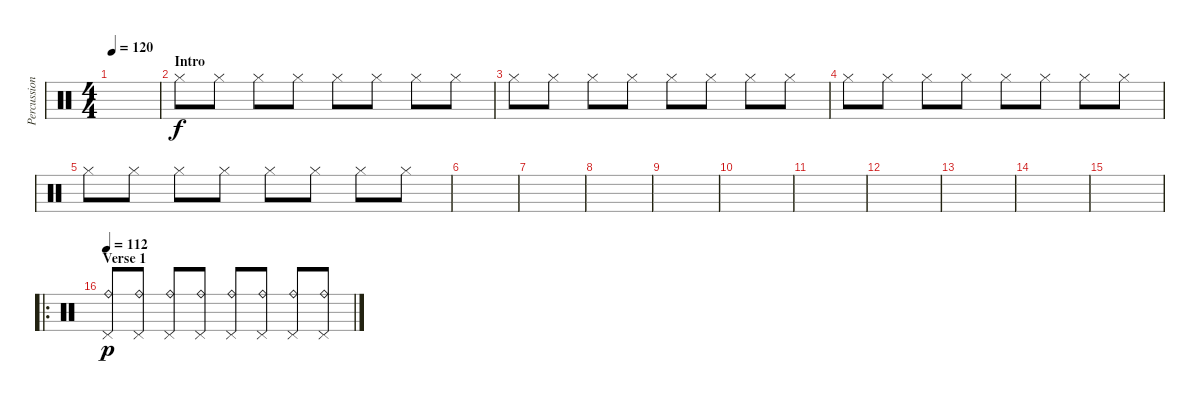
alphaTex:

\track ("Percussion 2" "Percussion") {instrument percussion}
\staff {score}
\articulation defaults
\ts (4 4)
\tempo 120
\clef neutral
\ks c
|
\section ("" "Intro")
"Hi-Hat (closed)".8 "Hi-Hat (closed)".8 "Hi-Hat (closed)".8 "Hi-Hat (closed)".8 "Hi-Hat (closed)".8 "Hi-Hat (closed)".8 "Hi-Hat (closed)".8 "Hi-Hat (closed)".8 |
"Hi-Hat (closed)".8 "Hi-Hat (closed)".8 "Hi-Hat (closed)".8 "Hi-Hat (closed)".8 "Hi-Hat (closed)".8 "Hi-Hat (closed)".8 "Hi-Hat (closed)".8 "Hi-Hat (closed)".8 |
"Hi-Hat (closed)".8 "Hi-Hat (closed)".8 "Hi-Hat (closed)".8 "Hi-Hat (closed)".8 "Hi-Hat (closed)".8 "Hi-Hat (closed)".8 "Hi-Hat (closed)".8 "Hi-Hat (closed)".8 |
"Hi-Hat (closed)".8 "Hi-Hat (closed)".8 "Hi-Hat (closed)".8 "Hi-Hat (closed)".8 "Hi-Hat (closed)".8 "Hi-Hat (closed)".8 "Hi-Hat (closed)".8 "Hi-Hat (closed)".8 |
|
|
|
|
|
|
|
|
|
|
\ro
\section ("" "Verse 1")
\tempo 112
("Pedal Hi-Hat (hit)" "Ride (bell)").8{dy p} ("Pedal Hi-Hat (hit)" "Ride (bell)").8 ("Pedal Hi-Hat (hit)" "Ride (bell)").8 ("Pedal Hi-Hat (hit)" "Ride (bell)").8 ("Pedal Hi-Hat (hit)" "Ride (bell)").8 ("Pedal Hi-Hat (hit)" "Ride (bell)").8 ("Pedal Hi-Hat (hit)" "Ride (bell)").8 ("Pedal Hi-Hat (hit)" "Ride (bell)").8
